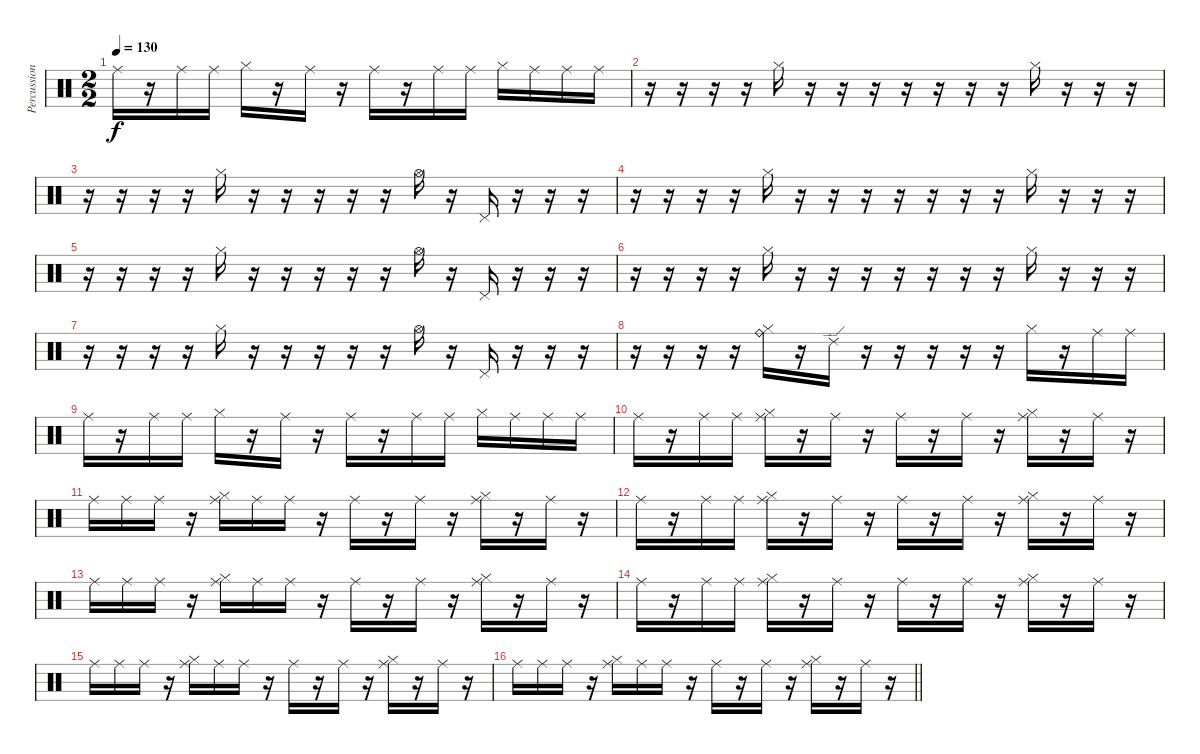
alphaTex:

\track ("Percussion" "Percussion") {instrument percussion}
\staff {score}
\articulation defaults
\ts (2 2)
\tempo 130
\clef neutral
\ks c "Ride (middle)".16{dy f}
r.16 "Ride (middle)".16 "Ride (middle)".16 "Hi-Hat (closed)".16 r.16 "Ride (middle)".16 r.16 "Ride (middle)".16 r.16 "Ride (middle)".16 "Ride (middle)".16 "Hi-Hat (closed)".16 "Ride (middle)".16 "Ride (middle)".16 "Ride (middle)".16 |
r.16 r.16 r.16 r.16 "Hi-Hat (closed)".16 r.16 r.16 r.16 r.16 r.16 r.16 r.16 "Hi-Hat (closed)".16 r.16 r.16 r.16 |
r.16 r.16 r.16 r.16 "Hi-Hat (closed)".16 r.16 r.16 r.16 r.16 r.16 "Hi-Hat (open)".16 r.16 "Pedal Hi-Hat (hit)".16 r.16 r.16 r.16 |
r.16 r.16 r.16 r.16 "Hi-Hat (closed)".16 r.16 r.16 r.16 r.16 r.16 r.16 r.16 "Hi-Hat (closed)".16 r.16 r.16 r.16 |
r.16 r.16 r.16 r.16 "Hi-Hat (closed)".16 r.16 r.16 r.16 r.16 r.16 "Hi-Hat (open)".16 r.16 "Pedal Hi-Hat (hit)".16 r.16 r.16 r.16 |
r.16 r.16 r.16 r.16 "Hi-Hat (closed)".16 r.16 r.16 r.16 r.16 r.16 r.16 r.16 "Hi-Hat (closed)".16 r.16 r.16 r.16 |
r.16 r.16 r.16 r.16 "Hi-Hat (closed)".16 r.16 r.16 r.16 r.16 r.16 "Hi-Hat (open)".16 r.16 "Pedal Hi-Hat (hit)".16 r.16 r.16 r.16 |
r.16 r.16 r.16 r.16 ("Ride (bell)" "Hi-Hat (closed)").16 r.16 "Ride (edge) 2".16 r.16 r.16 r.16 r.16 r.16 "Hi-Hat (closed)".16 r.16 "Ride (middle)".16 "Ride (middle)".16 |
"Ride (middle)".16 r.16 "Ride (middle)".16 "Ride (middle)".16 "Hi-Hat (closed)".16 r.16 "Ride (middle)".16 r.16 "Ride (middle)".16 r.16 "Ride (middle)".16 "Ride (middle)".16 "Hi-Hat (closed)".16 "Ride (middle)".16 "Ride (middle)".16 "Ride (middle)".16 |
"Ride (middle)".16{balance 0} r.16 "Ride (middle)".16 "Ride (middle)".16 ("Ride (middle)" "Hi-Hat (closed)").16 r.16 "Ride (middle)".16 r.16 "Ride (middle)".16 r.16 "Ride (middle)".16 r.16 ("Ride (middle)" "Hi-Hat (closed)").16 r.16 "Ride (middle)".16 r.16 |
"Ride (middle)".16 "Ride (middle)".16 "Ride (middle)".16 r.16 ("Ride (middle)" "Hi-Hat (closed)").16 "Ride (middle)".16 "Ride (middle)".16 r.16 "Ride (middle)".16 r.16 "Ride (middle)".16 r.16 ("Ride (middle)" "Hi-Hat (closed)").16 r.16 "Ride (middle)".16 r.16 |
"Ride (middle)".16{balance 16} r.16 "Ride (middle)".16 "Ride (middle)".16 ("Ride (middle)" "Hi-Hat (closed)").16 r.16 "Ride (middle)".16 r.16 "Ride (middle)".16 r.16 "Ride (middle)".16 r.16 ("Ride (middle)" "Hi-Hat (closed)").16 r.16 "Ride (middle)".16 r.16 |
"Ride (middle)".16 "Ride (middle)".16 "Ride (middle)".16 r.16 ("Ride (middle)" "Hi-Hat (closed)").16 "Ride (middle)".16 "Ride (middle)".16 r.16 "Ride (middle)".16 r.16 "Ride (middle)".16 r.16 ("Ride (middle)" "Hi-Hat (closed)").16 r.16 "Ride (middle)".16 r.16 |
"Ride (middle)".16{balance 0} r.16 "Ride (middle)".16 "Ride (middle)".16 ("Ride (middle)" "Hi-Hat (closed)").16 r.16 "Ride (middle)".16 r.16 "Ride (middle)".16 r.16 "Ride (middle)".16 r.16 ("Ride (middle)" "Hi-Hat (closed)").16 r.16 "Ride (middle)".16 r.16 |
"Ride (middle)".16 "Ride (middle)".16 "Ride (middle)".16 r.16 ("Ride (middle)" "Hi-Hat (closed)").16 "Ride (middle)".16 "Ride (middle)".16 r.16 "Ride (middle)".16 r.16 "Ride (middle)".16 r.16 ("Ride (middle)" "Hi-Hat (closed)").16 r.16 "Ride (middle)".16 r.16 |
\barLineRight lightlight "Ride (middle)".16{balance 0} "Ride (middle)".16 "Ride (middle)".16
r.16 ("Ride (middle)" "Hi-Hat (closed)").16 "Ride (middle)".16 "Ride (middle)".16 r.16 "Ride (middle)".16 r.16 "Ride (middle)".16 r.16 ("Ride (middle)" "Hi-Hat (closed)").16 r.16 "Ride (middle)".16 r.16
